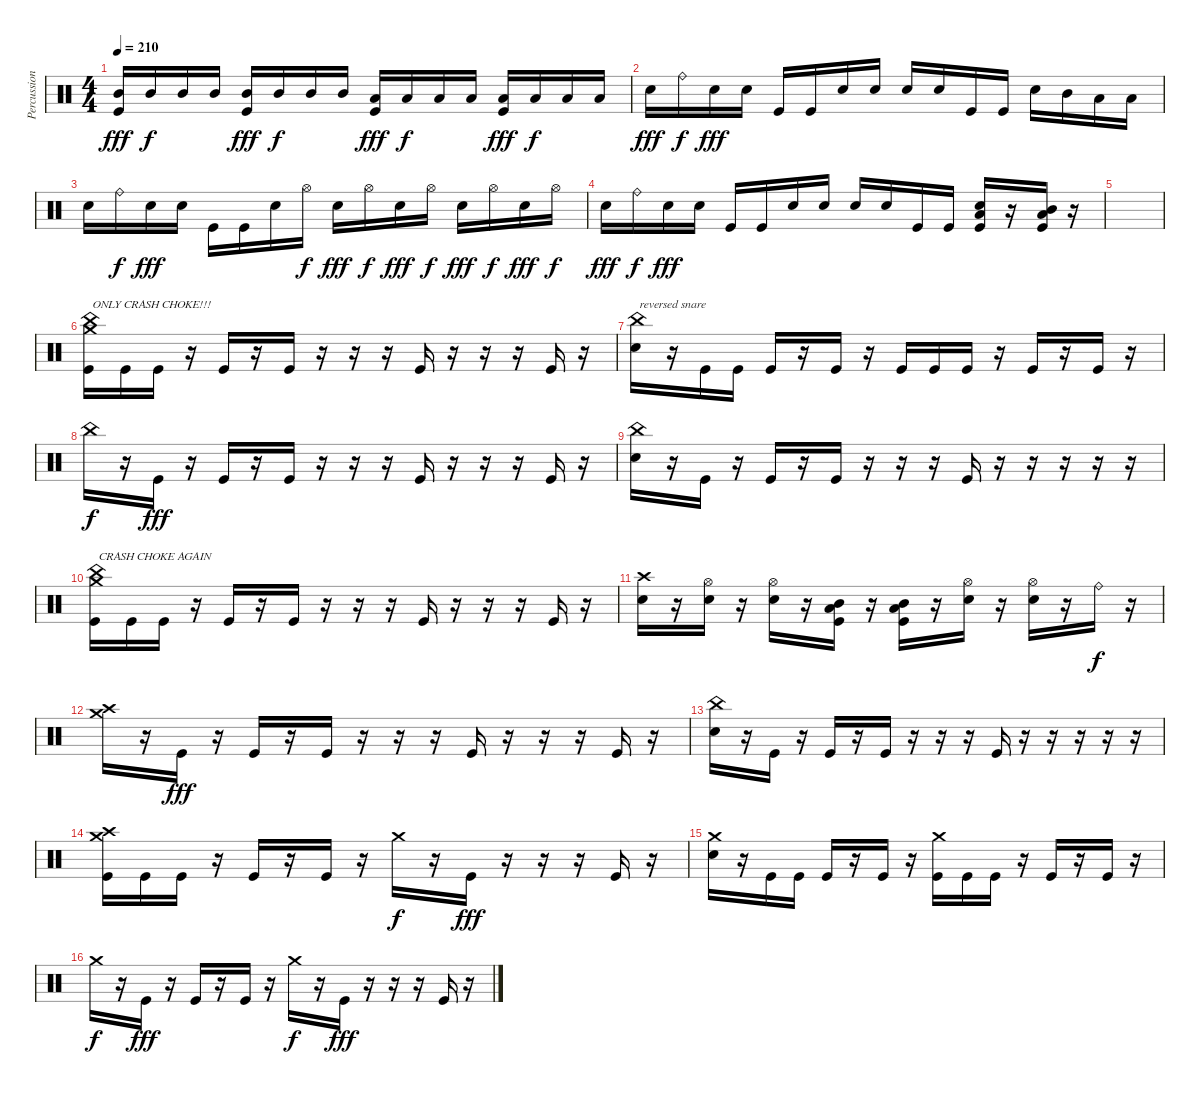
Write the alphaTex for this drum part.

\track ("Percussion" "Percussion") {instrument percussion}
\staff {score}
\articulation defaults
\ts (4 4)
\tempo 210
\clef neutral
\ks c
("Mid Tom (hit)" "Kick (hit)").16{dy fff} "Mid Tom (hit)".16{dy f} "Mid Tom (hit)".16 "Mid Tom (hit)".16 ("Mid Tom (hit)" "Kick (hit)").16{dy fff} "Mid Tom (hit)".16{dy f} "Mid Tom (hit)".16 "Mid Tom (hit)".16 ("Low Floor Tom (hit)" "Kick (hit)").16{dy fff} "Low Floor Tom (hit)".16{dy f} "Low Floor Tom (hit)".16 "Low Floor Tom (hit)".16 ("Low Floor Tom (hit)" "Kick (hit)").16{dy fff} "Low Floor Tom (hit)".16{dy f} "Low Floor Tom (hit)".16 "Low Floor Tom (hit)".16 |
"Snare (hit) 2".16{dy fff} "Ride (bell)".16{dy f} "Snare (hit) 2".16{dy fff} "Snare (hit) 2".16 "Kick (hit)".16 "Kick (hit)".16 "Snare (hit) 2".16 "Snare (hit) 2".16 "Snare (hit) 2".16 "Snare (hit) 2".16 "Kick (hit)".16 "Kick (hit)".16 "Snare (hit) 2".16 "Mid Tom (hit)".16 "Low Floor Tom (hit)".16 "Low Floor Tom (hit)".16 |
"Snare (hit) 2".16 "Ride (bell)".16{dy f} "Snare (hit) 2".16{dy fff} "Snare (hit) 2".16 "Kick (hit)".16 "Kick (hit)".16 "Snare (hit) 2".16 "Hi-Hat (open)".16{dy f} "Snare (hit) 2".16{dy fff} "Hi-Hat (open)".16{dy f} "Snare (hit) 2".16{dy fff} "Hi-Hat (open)".16{dy f} "Snare (hit) 2".16{dy fff} "Hi-Hat (open)".16{dy f} "Snare (hit) 2".16{dy fff} "Hi-Hat (open)".16{dy f} |
"Snare (hit) 2".16{dy fff} "Ride (bell)".16{dy f} "Snare (hit) 2".16{dy fff} "Snare (hit) 2".16 "Kick (hit)".16 "Kick (hit)".16 "Snare (hit) 2".16 "Snare (hit) 2".16 "Snare (hit) 2".16 "Snare (hit) 2".16 "Kick (hit)".16 "Kick (hit)".16 ("Snare (hit) 2" "Low Floor Tom (hit)" "Kick (hit)").16 r.16 ("Mid Tom (hit)" "Low Floor Tom (hit)" "Kick (hit)").16 r.16 |
|
("China (hit)" "Crash medium (hit)" "Kick (hit)").16{txt "ONLY CRASH CHOKE!!!"} "Kick (hit)".16 "Kick (hit)".16 r.16 "Kick (hit)".16 r.16 "Kick (hit)".16 r.16 r.16 r.16 "Kick (hit)".16 r.16 r.16 r.16 "Kick (hit)".16 r.16 |
("China (hit)" "Snare (hit) 2").16{txt "reversed snare"} r.16 "Kick (hit)".16 "Kick (hit)".16 "Kick (hit)".16 r.16 "Kick (hit)".16 r.16 "Kick (hit)".16 "Kick (hit)".16 "Kick (hit)".16 r.16 "Kick (hit)".16 r.16 "Kick (hit)".16 r.16 |
"China (hit)".16{dy f} r.16 "Kick (hit)".16{dy fff} r.16 "Kick (hit)".16 r.16 "Kick (hit)".16 r.16 r.16 r.16 "Kick (hit)".16 r.16 r.16 r.16 "Kick (hit)".16 r.16 |
("China (hit)" "Snare (hit) 2").16 r.16 "Kick (hit)".16 r.16 "Kick (hit)".16 r.16 "Kick (hit)".16 r.16 r.16 r.16 "Kick (hit)".16 r.16 r.16 r.16 r.16 r.16 |
("China (hit)" "Crash medium (hit)" "Kick (hit)").16{txt "CRASH CHOKE AGAIN"} "Kick (hit)".16 "Kick (hit)".16 r.16 "Kick (hit)".16 r.16 "Kick (hit)".16 r.16 r.16 r.16 "Kick (hit)".16 r.16 r.16 r.16 "Kick (hit)".16 r.16 |
("Crash high (hit)" "Snare (hit) 2").16 r.16 ("Hi-Hat (open)" "Snare (hit) 2").16 r.16 ("Hi-Hat (open)" "Snare (hit) 2").16 r.16 ("Mid Tom (hit)" "Low Floor Tom (hit)" "Kick (hit)").16 r.16 ("Mid Tom (hit)" "Low Floor Tom (hit)" "Kick (hit)").16 r.16 ("Hi-Hat (open)" "Snare (hit) 2").16 r.16 ("Hi-Hat (open)" "Snare (hit) 2").16 r.16 "Ride (bell)".16{dy f} r.16 |
("Crash medium (hit)" "Crash high (hit)").16 r.16 "Kick (hit)".16{dy fff} r.16 "Kick (hit)".16 r.16 "Kick (hit)".16 r.16 r.16 r.16 "Kick (hit)".16 r.16 r.16 r.16 "Kick (hit)".16 r.16 |
("China (hit)" "Snare (hit) 2").16 r.16 "Kick (hit)".16 r.16 "Kick (hit)".16 r.16 "Kick (hit)".16 r.16 r.16 r.16 "Kick (hit)".16 r.16 r.16 r.16 r.16 r.16 |
("Crash high (hit)" "Crash medium (hit)" "Kick (hit)").16 "Kick (hit)".16 "Kick (hit)".16 r.16 "Kick (hit)".16 r.16 "Kick (hit)".16 r.16 "Crash medium (hit)".16{dy f} r.16 "Kick (hit)".16{dy fff} r.16 r.16 r.16 "Kick (hit)".16 r.16 |
("Crash medium (hit)" "Snare (hit) 2").16 r.16 "Kick (hit)".16 "Kick (hit)".16 "Kick (hit)".16 r.16 "Kick (hit)".16 r.16 ("Crash medium (hit)" "Kick (hit)").16 "Kick (hit)".16 "Kick (hit)".16 r.16 "Kick (hit)".16 r.16 "Kick (hit)".16 r.16 |
"Crash medium (hit)".16{dy f} r.16 "Kick (hit)".16{dy fff} r.16 "Kick (hit)".16 r.16 "Kick (hit)".16 r.16 "Crash medium (hit)".16{dy f} r.16 "Kick (hit)".16{dy fff} r.16 r.16 r.16 "Kick (hit)".16 r.16
